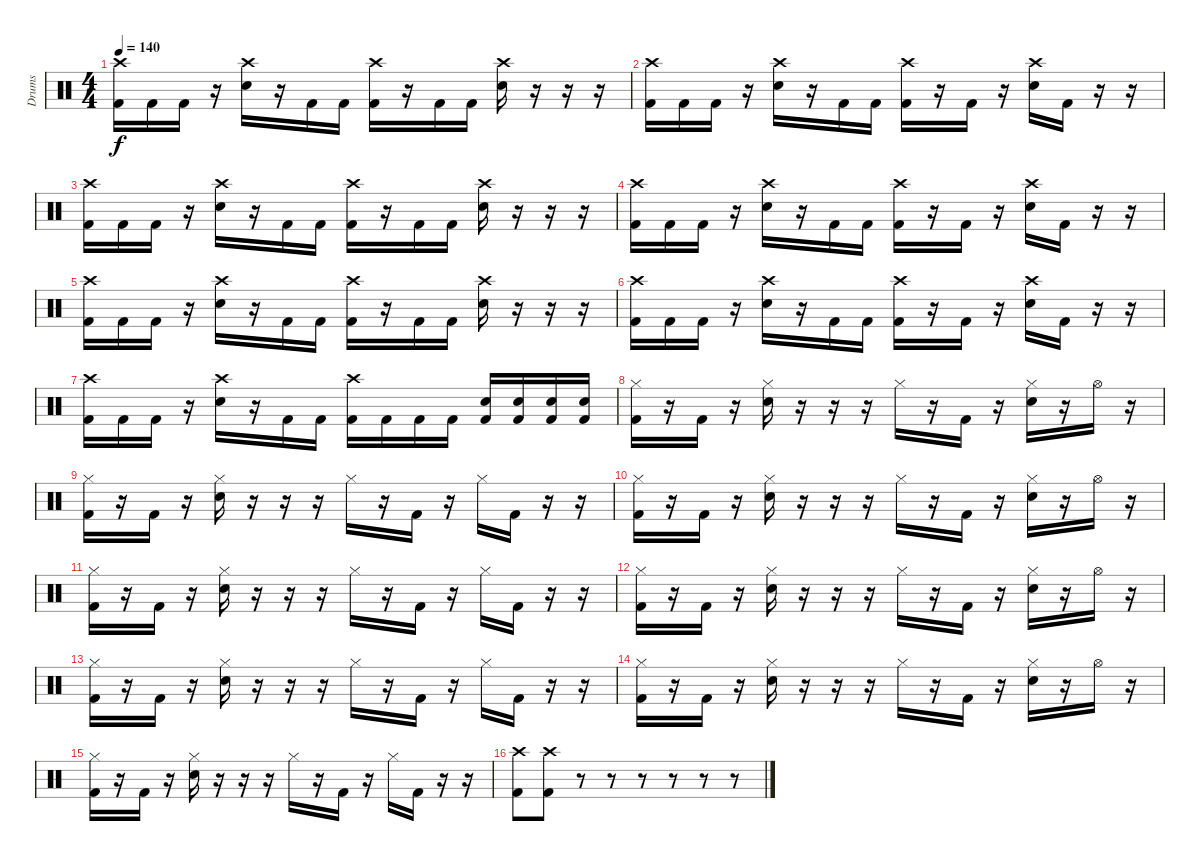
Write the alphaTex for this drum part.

\track ("Drums" "Drums") {instrument percussion}
\staff {score}
\articulation defaults
\ts (4 4)
\tempo 140
\clef neutral
\ks c
("Crash high (hit)" "Kick (hit) 2").16{dy f} "Kick (hit) 2".16 "Kick (hit) 2".16 r.16 ("Crash high (hit)" "Electric Snare (hit)").16 r.16 "Kick (hit) 2".16 "Kick (hit) 2".16 ("Crash high (hit)" "Kick (hit) 2").16 r.16 "Kick (hit) 2".16 "Kick (hit) 2".16 ("Crash high (hit)" "Electric Snare (hit)").16 r.16 r.16 r.16 |
("Crash high (hit)" "Kick (hit) 2").16 "Kick (hit) 2".16 "Kick (hit) 2".16 r.16 ("Crash high (hit)" "Electric Snare (hit)").16 r.16 "Kick (hit) 2".16 "Kick (hit) 2".16 ("Crash high (hit)" "Kick (hit) 2").16 r.16 "Kick (hit) 2".16 r.16 ("Crash high (hit)" "Electric Snare (hit)").16 "Kick (hit) 2".16 r.16 r.16 |
("Crash high (hit)" "Kick (hit) 2").16 "Kick (hit) 2".16 "Kick (hit) 2".16 r.16 ("Crash high (hit)" "Electric Snare (hit)").16 r.16 "Kick (hit) 2".16 "Kick (hit) 2".16 ("Crash high (hit)" "Kick (hit) 2").16 r.16 "Kick (hit) 2".16 "Kick (hit) 2".16 ("Crash high (hit)" "Electric Snare (hit)").16 r.16 r.16 r.16 |
("Crash high (hit)" "Kick (hit) 2").16 "Kick (hit) 2".16 "Kick (hit) 2".16 r.16 ("Crash high (hit)" "Electric Snare (hit)").16 r.16 "Kick (hit) 2".16 "Kick (hit) 2".16 ("Crash high (hit)" "Kick (hit) 2").16 r.16 "Kick (hit) 2".16 r.16 ("Crash high (hit)" "Electric Snare (hit)").16 "Kick (hit) 2".16 r.16 r.16 |
("Crash high (hit)" "Kick (hit) 2").16 "Kick (hit) 2".16 "Kick (hit) 2".16 r.16 ("Crash high (hit)" "Electric Snare (hit)").16 r.16 "Kick (hit) 2".16 "Kick (hit) 2".16 ("Crash high (hit)" "Kick (hit) 2").16 r.16 "Kick (hit) 2".16 "Kick (hit) 2".16 ("Crash high (hit)" "Electric Snare (hit)").16 r.16 r.16 r.16 |
("Crash high (hit)" "Kick (hit) 2").16 "Kick (hit) 2".16 "Kick (hit) 2".16 r.16 ("Crash high (hit)" "Electric Snare (hit)").16 r.16 "Kick (hit) 2".16 "Kick (hit) 2".16 ("Crash high (hit)" "Kick (hit) 2").16 r.16 "Kick (hit) 2".16 r.16 ("Crash high (hit)" "Electric Snare (hit)").16 "Kick (hit) 2".16 r.16 r.16 |
("Crash high (hit)" "Kick (hit) 2").16 "Kick (hit) 2".16 "Kick (hit) 2".16 r.16 ("Crash high (hit)" "Electric Snare (hit)").16 r.16 "Kick (hit) 2".16 "Kick (hit) 2".16 ("Crash high (hit)" "Kick (hit) 2").16 "Kick (hit) 2".16 "Kick (hit) 2".16 "Kick (hit) 2".16 ("Electric Snare (hit)" "Kick (hit) 2").16 ("Electric Snare (hit)" "Kick (hit) 2").16 ("Electric Snare (hit)" "Kick (hit) 2").16 ("Electric Snare (hit)" "Kick (hit) 2").16 |
("Hi-Hat (closed)" "Kick (hit) 2").16 r.16 "Kick (hit) 2".16 r.16 ("Hi-Hat (closed)" "Electric Snare (hit)").16 r.16 r.16 r.16 "Hi-Hat (closed)".16 r.16 "Kick (hit) 2".16 r.16 ("Hi-Hat (closed)" "Electric Snare (hit)").16 r.16 "Hi-Hat (open)".16 r.16 |
("Hi-Hat (closed)" "Kick (hit) 2").16 r.16 "Kick (hit) 2".16 r.16 ("Hi-Hat (closed)" "Electric Snare (hit)").16 r.16 r.16 r.16 "Hi-Hat (closed)".16 r.16 "Kick (hit) 2".16 r.16 "Hi-Hat (closed)".16 "Kick (hit) 2".16 r.16 r.16 |
("Hi-Hat (closed)" "Kick (hit) 2").16 r.16 "Kick (hit) 2".16 r.16 ("Hi-Hat (closed)" "Electric Snare (hit)").16 r.16 r.16 r.16 "Hi-Hat (closed)".16 r.16 "Kick (hit) 2".16 r.16 ("Hi-Hat (closed)" "Electric Snare (hit)").16 r.16 "Hi-Hat (open)".16 r.16 |
("Hi-Hat (closed)" "Kick (hit) 2").16 r.16 "Kick (hit) 2".16 r.16 ("Hi-Hat (closed)" "Electric Snare (hit)").16 r.16 r.16 r.16 "Hi-Hat (closed)".16 r.16 "Kick (hit) 2".16 r.16 "Hi-Hat (closed)".16 "Kick (hit) 2".16 r.16 r.16 |
("Hi-Hat (closed)" "Kick (hit) 2").16 r.16 "Kick (hit) 2".16 r.16 ("Hi-Hat (closed)" "Electric Snare (hit)").16 r.16 r.16 r.16 "Hi-Hat (closed)".16 r.16 "Kick (hit) 2".16 r.16 ("Hi-Hat (closed)" "Electric Snare (hit)").16 r.16 "Hi-Hat (open)".16 r.16 |
("Hi-Hat (closed)" "Kick (hit) 2").16 r.16 "Kick (hit) 2".16 r.16 ("Hi-Hat (closed)" "Electric Snare (hit)").16 r.16 r.16 r.16 "Hi-Hat (closed)".16 r.16 "Kick (hit) 2".16 r.16 "Hi-Hat (closed)".16 "Kick (hit) 2".16 r.16 r.16 |
("Hi-Hat (closed)" "Kick (hit) 2").16 r.16 "Kick (hit) 2".16 r.16 ("Hi-Hat (closed)" "Electric Snare (hit)").16 r.16 r.16 r.16 "Hi-Hat (closed)".16 r.16 "Kick (hit) 2".16 r.16 ("Hi-Hat (closed)" "Electric Snare (hit)").16 r.16 "Hi-Hat (open)".16 r.16 |
("Hi-Hat (closed)" "Kick (hit) 2").16 r.16 "Kick (hit) 2".16 r.16 ("Hi-Hat (closed)" "Electric Snare (hit)").16 r.16 r.16 r.16 "Hi-Hat (closed)".16 r.16 "Kick (hit) 2".16 r.16 "Hi-Hat (closed)".16 "Kick (hit) 2".16 r.16 r.16 |
("Crash high (hit)" "Kick (hit) 2").8 ("Crash high (hit)" "Kick (hit) 2").8 r.8 r.8 r.8 r.8 r.8 r.8
